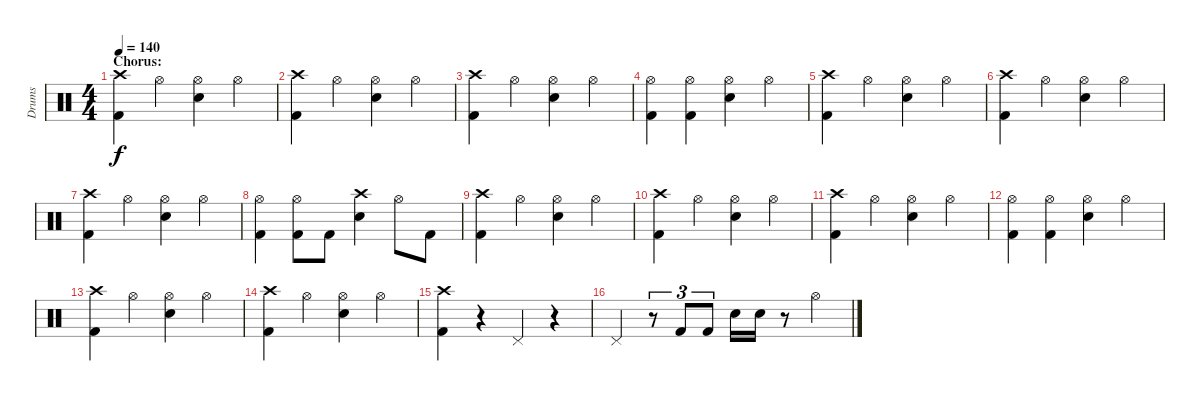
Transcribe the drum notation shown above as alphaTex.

\track ("Drums" "Drums") {instrument percussion}
\staff {score}
\articulation defaults
\ts (4 4)
\section ("" "Chorus:")
\tempo 140
\clef neutral
\ks c
("Crash high (hit)" "Kick (hit) 2").4{dy f} "Hi-Hat (open)".4 ("Hi-Hat (open)" "Electric Snare (hit)").4 "Hi-Hat (open)".4 |
("Crash high (hit)" "Kick (hit) 2").4 "Hi-Hat (open)".4 ("Hi-Hat (open)" "Electric Snare (hit)").4 "Hi-Hat (open)".4 |
("Crash high (hit)" "Kick (hit) 2").4 "Hi-Hat (open)".4 ("Hi-Hat (open)" "Electric Snare (hit)").4 "Hi-Hat (open)".4 |
("Hi-Hat (open)" "Kick (hit) 2").4 ("Hi-Hat (open)" "Kick (hit) 2").4 ("Hi-Hat (open)" "Electric Snare (hit)").4 "Hi-Hat (open)".4 |
("Crash high (hit)" "Kick (hit) 2").4 "Hi-Hat (open)".4 ("Hi-Hat (open)" "Electric Snare (hit)").4 "Hi-Hat (open)".4 |
("Crash high (hit)" "Kick (hit) 2").4 "Hi-Hat (open)".4 ("Hi-Hat (open)" "Electric Snare (hit)").4 "Hi-Hat (open)".4 |
("Crash high (hit)" "Kick (hit) 2").4 "Hi-Hat (open)".4 ("Hi-Hat (open)" "Electric Snare (hit)").4 "Hi-Hat (open)".4 |
("Hi-Hat (open)" "Kick (hit) 2").4 ("Hi-Hat (open)" "Kick (hit) 2").8 "Kick (hit) 2".8 ("Crash high (hit)" "Electric Snare (hit)").4 "Hi-Hat (open)".8 "Kick (hit) 2".8 |
("Crash high (hit)" "Kick (hit) 2").4 "Hi-Hat (open)".4 ("Hi-Hat (open)" "Electric Snare (hit)").4 "Hi-Hat (open)".4 |
("Crash high (hit)" "Kick (hit) 2").4 "Hi-Hat (open)".4 ("Hi-Hat (open)" "Electric Snare (hit)").4 "Hi-Hat (open)".4 |
("Crash high (hit)" "Kick (hit) 2").4 "Hi-Hat (open)".4 ("Hi-Hat (open)" "Electric Snare (hit)").4 "Hi-Hat (open)".4 |
("Hi-Hat (open)" "Kick (hit) 2").4 ("Hi-Hat (open)" "Kick (hit) 2").4 ("Hi-Hat (open)" "Electric Snare (hit)").4 "Hi-Hat (open)".4 |
("Crash high (hit)" "Kick (hit) 2").4 "Hi-Hat (open)".4 ("Hi-Hat (open)" "Electric Snare (hit)").4 "Hi-Hat (open)".4 |
("Crash high (hit)" "Kick (hit) 2").4 "Hi-Hat (open)".4 ("Hi-Hat (open)" "Electric Snare (hit)").4 "Hi-Hat (open)".4 |
("Crash high (hit)" "Kick (hit) 2").4 r.4 "Pedal Hi-Hat (hit)".4 r.4 |
"Pedal Hi-Hat (hit)".4 r.8{tu (3 2)} "Kick (hit) 2".8{tu (3 2)} "Kick (hit) 2".8{tu (3 2)} "Electric Snare (hit)".16 "Electric Snare (hit)".16 r.8 "Hi-Hat (open)".4
